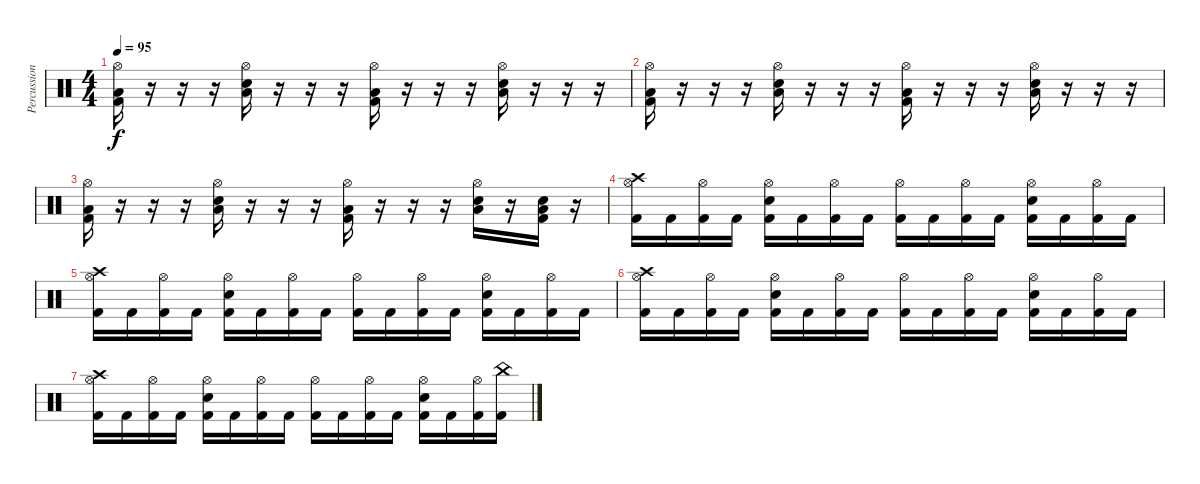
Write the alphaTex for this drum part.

\track ("Percussion" "Percussion") {instrument percussion}
\staff {score}
\articulation defaults
\ts (4 4)
\tempo 95
\clef neutral
\ks c
("Hi-Hat (open)" "Low Floor Tom (hit)" "Kick (hit) 2").16{dy f} r.16 r.16 r.16 ("Hi-Hat (open)" "Low Floor Tom (hit)" "Electric Snare (hit)").16 r.16 r.16 r.16 ("Hi-Hat (open)" "Low Floor Tom (hit)" "Kick (hit) 2").16 r.16 r.16 r.16 ("Hi-Hat (open)" "Low Floor Tom (hit)" "Electric Snare (hit)").16 r.16 r.16 r.16 |
("Hi-Hat (open)" "Low Floor Tom (hit)" "Kick (hit) 2").16 r.16 r.16 r.16 ("Hi-Hat (open)" "Low Floor Tom (hit)" "Electric Snare (hit)").16 r.16 r.16 r.16 ("Hi-Hat (open)" "Low Floor Tom (hit)" "Kick (hit) 2").16 r.16 r.16 r.16 ("Hi-Hat (open)" "Low Floor Tom (hit)" "Electric Snare (hit)").16 r.16 r.16 r.16 |
("Hi-Hat (open)" "Low Floor Tom (hit)" "Kick (hit) 2").16 r.16 r.16 r.16 ("Hi-Hat (open)" "Low Floor Tom (hit)" "Electric Snare (hit)").16 r.16 r.16 r.16 ("Hi-Hat (open)" "Low Floor Tom (hit)" "Kick (hit) 2").16 r.16 r.16 r.16 ("Hi-Hat (open)" "Low Floor Tom (hit)" "Electric Snare (hit)").16 r.16 ("Low Floor Tom (hit)" "Kick (hit) 2" "Electric Snare (hit)").16 r.16 |
("Crash high (hit)" "Hi-Hat (open)" "Kick (hit) 2").16 "Kick (hit) 2".16 ("Hi-Hat (open)" "Kick (hit) 2").16 "Kick (hit) 2".16 ("Hi-Hat (open)" "Electric Snare (hit)" "Kick (hit) 2").16 "Kick (hit) 2".16 ("Hi-Hat (open)" "Kick (hit) 2").16 "Kick (hit) 2".16 ("Hi-Hat (open)" "Kick (hit) 2").16 "Kick (hit) 2".16 ("Hi-Hat (open)" "Kick (hit) 2").16 "Kick (hit) 2".16 ("Hi-Hat (open)" "Electric Snare (hit)" "Kick (hit) 2").16 "Kick (hit) 2".16 ("Hi-Hat (open)" "Kick (hit) 2").16 "Kick (hit) 2".16 |
("Crash high (hit)" "Hi-Hat (open)" "Kick (hit) 2").16 "Kick (hit) 2".16 ("Hi-Hat (open)" "Kick (hit) 2").16 "Kick (hit) 2".16 ("Hi-Hat (open)" "Electric Snare (hit)" "Kick (hit) 2").16 "Kick (hit) 2".16 ("Hi-Hat (open)" "Kick (hit) 2").16 "Kick (hit) 2".16 ("Hi-Hat (open)" "Kick (hit) 2").16 "Kick (hit) 2".16 ("Hi-Hat (open)" "Kick (hit) 2").16 "Kick (hit) 2".16 ("Hi-Hat (open)" "Electric Snare (hit)" "Kick (hit) 2").16 "Kick (hit) 2".16 ("Hi-Hat (open)" "Kick (hit) 2").16 "Kick (hit) 2".16 |
("Crash high (hit)" "Hi-Hat (open)" "Kick (hit) 2").16 "Kick (hit) 2".16 ("Hi-Hat (open)" "Kick (hit) 2").16 "Kick (hit) 2".16 ("Hi-Hat (open)" "Electric Snare (hit)" "Kick (hit) 2").16 "Kick (hit) 2".16 ("Hi-Hat (open)" "Kick (hit) 2").16 "Kick (hit) 2".16 ("Hi-Hat (open)" "Kick (hit) 2").16 "Kick (hit) 2".16 ("Hi-Hat (open)" "Kick (hit) 2").16 "Kick (hit) 2".16 ("Hi-Hat (open)" "Electric Snare (hit)" "Kick (hit) 2").16 "Kick (hit) 2".16 ("Hi-Hat (open)" "Kick (hit) 2").16 "Kick (hit) 2".16 |
("Crash high (hit)" "Hi-Hat (open)" "Kick (hit) 2").16 "Kick (hit) 2".16 ("Hi-Hat (open)" "Kick (hit) 2").16 "Kick (hit) 2".16 ("Hi-Hat (open)" "Electric Snare (hit)" "Kick (hit) 2").16 "Kick (hit) 2".16 ("Hi-Hat (open)" "Kick (hit) 2").16 "Kick (hit) 2".16 ("Hi-Hat (open)" "Kick (hit) 2").16 "Kick (hit) 2".16 ("Hi-Hat (open)" "Kick (hit) 2").16 "Kick (hit) 2".16 ("Hi-Hat (open)" "Electric Snare (hit)" "Kick (hit) 2").16 "Kick (hit) 2".16 ("Hi-Hat (open)" "Kick (hit) 2").16 ("China (hit)" "Kick (hit) 2").16
